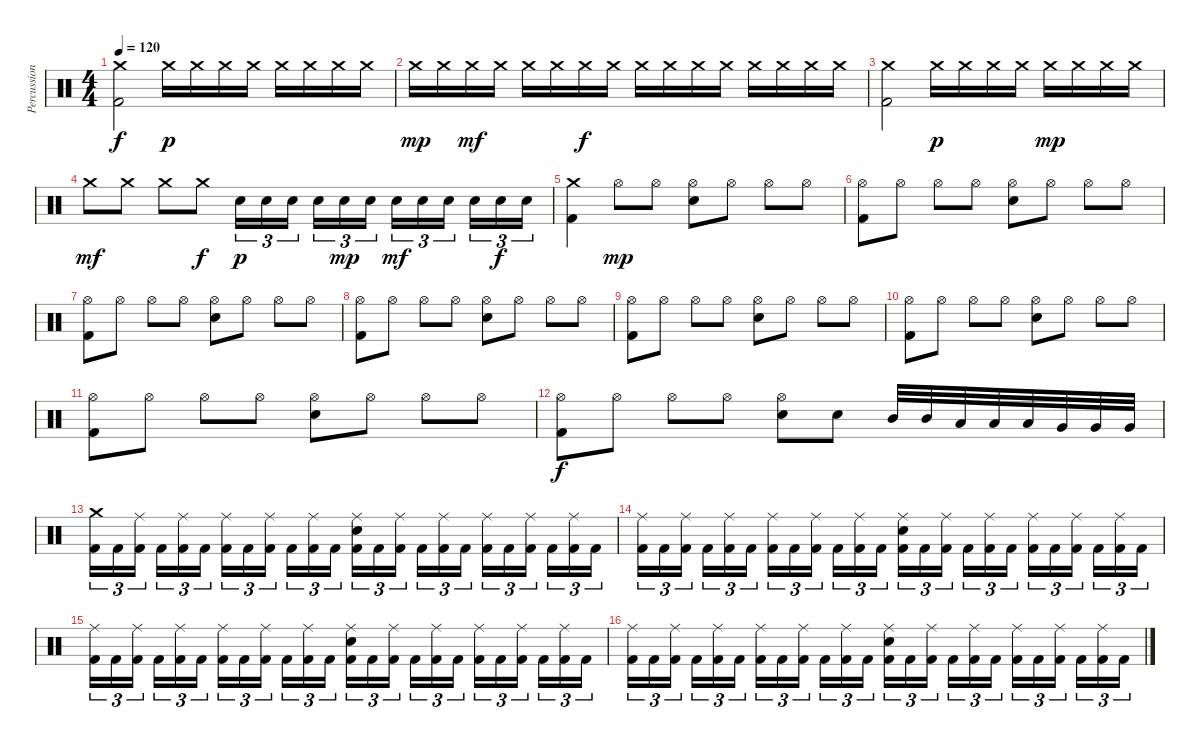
\track ("Percussion" "Percussion") {instrument percussion}
\staff {score}
\articulation defaults
\ts (4 4)
\tempo 120
\clef neutral
\ks c
("Kick (hit) 2" "Crash medium (hit)").2{dy f} "Crash medium (hit)".16{dy p} "Crash medium (hit)".16 "Crash medium (hit)".16 "Crash medium (hit)".16 "Crash medium (hit)".16 "Crash medium (hit)".16 "Crash medium (hit)".16 "Crash medium (hit)".16 |
"Crash medium (hit)".16{dy mp} "Crash medium (hit)".16 "Crash medium (hit)".16{dy mf} "Crash medium (hit)".16 "Crash medium (hit)".16 "Crash medium (hit)".16 "Crash medium (hit)".16{dy f} "Crash medium (hit)".16 "Crash medium (hit)".16 "Crash medium (hit)".16 "Crash medium (hit)".16 "Crash medium (hit)".16 "Crash medium (hit)".16 "Crash medium (hit)".16 "Crash medium (hit)".16 "Crash medium (hit)".16 |
("Kick (hit) 2" "Crash medium (hit)").2 "Crash medium (hit)".16{dy p} "Crash medium (hit)".16 "Crash medium (hit)".16 "Crash medium (hit)".16 "Crash medium (hit)".16{dy mp} "Crash medium (hit)".16 "Crash medium (hit)".16 "Crash medium (hit)".16 |
"Crash medium (hit)".8{dy mf} "Crash medium (hit)".8 "Crash medium (hit)".8 "Crash medium (hit)".8{dy f} "Electric Snare (hit)".16{tu (3 2) dy p} "Electric Snare (hit)".16{tu (3 2)} "Electric Snare (hit)".16{tu (3 2)} "Electric Snare (hit)".16{tu (3 2)} "Electric Snare (hit)".16{tu (3 2) dy mp} "Electric Snare (hit)".16{tu (3 2)} "Electric Snare (hit)".16{tu (3 2) dy mf} "Electric Snare (hit)".16{tu (3 2)} "Electric Snare (hit)".16{tu (3 2)} "Electric Snare (hit)".16{tu (3 2)} "Electric Snare (hit)".16{tu (3 2) dy f} "Electric Snare (hit)".16{tu (3 2)} |
("Kick (hit) 2" "Crash medium (hit)").4 "Hi-Hat (open)".8{dy mp} "Hi-Hat (open)".8 ("Electric Snare (hit)" "Hi-Hat (open)").8 "Hi-Hat (open)".8 "Hi-Hat (open)".8 "Hi-Hat (open)".8 |
("Kick (hit) 2" "Hi-Hat (open)").8 "Hi-Hat (open)".8 "Hi-Hat (open)".8 "Hi-Hat (open)".8 ("Electric Snare (hit)" "Hi-Hat (open)").8 "Hi-Hat (open)".8 "Hi-Hat (open)".8 "Hi-Hat (open)".8 |
("Kick (hit) 2" "Hi-Hat (open)").8 "Hi-Hat (open)".8 "Hi-Hat (open)".8 "Hi-Hat (open)".8 ("Electric Snare (hit)" "Hi-Hat (open)").8 "Hi-Hat (open)".8 "Hi-Hat (open)".8 "Hi-Hat (open)".8 |
("Kick (hit) 2" "Hi-Hat (open)").8 "Hi-Hat (open)".8 "Hi-Hat (open)".8 "Hi-Hat (open)".8 ("Electric Snare (hit)" "Hi-Hat (open)").8 "Hi-Hat (open)".8 "Hi-Hat (open)".8 "Hi-Hat (open)".8 |
("Kick (hit) 2" "Hi-Hat (open)").8 "Hi-Hat (open)".8 "Hi-Hat (open)".8 "Hi-Hat (open)".8 ("Electric Snare (hit)" "Hi-Hat (open)").8 "Hi-Hat (open)".8 "Hi-Hat (open)".8 "Hi-Hat (open)".8 |
("Kick (hit) 2" "Hi-Hat (open)").8 "Hi-Hat (open)".8 "Hi-Hat (open)".8 "Hi-Hat (open)".8 ("Electric Snare (hit)" "Hi-Hat (open)").8 "Hi-Hat (open)".8 "Hi-Hat (open)".8 "Hi-Hat (open)".8 |
("Kick (hit) 2" "Hi-Hat (open)").8 "Hi-Hat (open)".8 "Hi-Hat (open)".8 "Hi-Hat (open)".8 ("Electric Snare (hit)" "Hi-Hat (open)").8 "Hi-Hat (open)".8 "Hi-Hat (open)".8 "Hi-Hat (open)".8 |
("Kick (hit) 2" "Hi-Hat (open)").8{dy f} "Hi-Hat (open)".8 "Hi-Hat (open)".8 "Hi-Hat (open)".8 ("Electric Snare (hit)" "Hi-Hat (open)").8 "Electric Snare (hit)".8 "Mid Tom (hit)".32 "Mid Tom (hit)".32 "Low Tom (hit)".32 "Low Tom (hit)".32 "Low Tom (hit)".32 "Very Low Tom (hit)".32 "Very Low Tom (hit)".32 "Very Low Tom (hit)".32 |
("Crash medium (hit)" "Kick (hit) 2").16{tu (3 2)} "Kick (hit) 2".16{tu (3 2)} ("Ride (middle)" "Kick (hit) 2").16{tu (3 2)} "Kick (hit) 2".16{tu (3 2)} ("Ride (middle)" "Kick (hit) 2").16{tu (3 2)} "Kick (hit) 2".16{tu (3 2)} ("Ride (middle)" "Kick (hit) 2").16{tu (3 2)} "Kick (hit) 2".16{tu (3 2)} ("Ride (middle)" "Kick (hit) 2").16{tu (3 2)} "Kick (hit) 2".16{tu (3 2)} ("Ride (middle)" "Kick (hit) 2").16{tu (3 2)} "Kick (hit) 2".16{tu (3 2)} ("Electric Snare (hit)" "Ride (middle)" "Kick (hit) 2").16{tu (3 2)} "Kick (hit) 2".16{tu (3 2)} ("Ride (middle)" "Kick (hit) 2").16{tu (3 2)} "Kick (hit) 2".16{tu (3 2)} ("Ride (middle)" "Kick (hit) 2").16{tu (3 2)} "Kick (hit) 2".16{tu (3 2)} ("Ride (middle)" "Kick (hit) 2").16{tu (3 2)} "Kick (hit) 2".16{tu (3 2)} ("Ride (middle)" "Kick (hit) 2").16{tu (3 2)} "Kick (hit) 2".16{tu (3 2)} ("Ride (middle)" "Kick (hit) 2").16{tu (3 2)} "Kick (hit) 2".16{tu (3 2)} |
("Ride (middle)" "Kick (hit) 2").16{tu (3 2)} "Kick (hit) 2".16{tu (3 2)} ("Ride (middle)" "Kick (hit) 2").16{tu (3 2)} "Kick (hit) 2".16{tu (3 2)} ("Ride (middle)" "Kick (hit) 2").16{tu (3 2)} "Kick (hit) 2".16{tu (3 2)} ("Ride (middle)" "Kick (hit) 2").16{tu (3 2)} "Kick (hit) 2".16{tu (3 2)} ("Ride (middle)" "Kick (hit) 2").16{tu (3 2)} "Kick (hit) 2".16{tu (3 2)} ("Ride (middle)" "Kick (hit) 2").16{tu (3 2)} "Kick (hit) 2".16{tu (3 2)} ("Electric Snare (hit)" "Ride (middle)" "Kick (hit) 2").16{tu (3 2)} "Kick (hit) 2".16{tu (3 2)} ("Ride (middle)" "Kick (hit) 2").16{tu (3 2)} "Kick (hit) 2".16{tu (3 2)} ("Ride (middle)" "Kick (hit) 2").16{tu (3 2)} "Kick (hit) 2".16{tu (3 2)} ("Ride (middle)" "Kick (hit) 2").16{tu (3 2)} "Kick (hit) 2".16{tu (3 2)} ("Ride (middle)" "Kick (hit) 2").16{tu (3 2)} "Kick (hit) 2".16{tu (3 2)} ("Ride (middle)" "Kick (hit) 2").16{tu (3 2)} "Kick (hit) 2".16{tu (3 2)} |
("Ride (middle)" "Kick (hit) 2").16{tu (3 2)} "Kick (hit) 2".16{tu (3 2)} ("Ride (middle)" "Kick (hit) 2").16{tu (3 2)} "Kick (hit) 2".16{tu (3 2)} ("Ride (middle)" "Kick (hit) 2").16{tu (3 2)} "Kick (hit) 2".16{tu (3 2)} ("Ride (middle)" "Kick (hit) 2").16{tu (3 2)} "Kick (hit) 2".16{tu (3 2)} ("Ride (middle)" "Kick (hit) 2").16{tu (3 2)} "Kick (hit) 2".16{tu (3 2)} ("Ride (middle)" "Kick (hit) 2").16{tu (3 2)} "Kick (hit) 2".16{tu (3 2)} ("Electric Snare (hit)" "Ride (middle)" "Kick (hit) 2").16{tu (3 2)} "Kick (hit) 2".16{tu (3 2)} ("Ride (middle)" "Kick (hit) 2").16{tu (3 2)} "Kick (hit) 2".16{tu (3 2)} ("Ride (middle)" "Kick (hit) 2").16{tu (3 2)} "Kick (hit) 2".16{tu (3 2)} ("Ride (middle)" "Kick (hit) 2").16{tu (3 2)} "Kick (hit) 2".16{tu (3 2)} ("Ride (middle)" "Kick (hit) 2").16{tu (3 2)} "Kick (hit) 2".16{tu (3 2)} ("Ride (middle)" "Kick (hit) 2").16{tu (3 2)} "Kick (hit) 2".16{tu (3 2)} |
("Ride (middle)" "Kick (hit) 2").16{tu (3 2)} "Kick (hit) 2".16{tu (3 2)} ("Ride (middle)" "Kick (hit) 2").16{tu (3 2)} "Kick (hit) 2".16{tu (3 2)} ("Ride (middle)" "Kick (hit) 2").16{tu (3 2)} "Kick (hit) 2".16{tu (3 2)} ("Ride (middle)" "Kick (hit) 2").16{tu (3 2)} "Kick (hit) 2".16{tu (3 2)} ("Ride (middle)" "Kick (hit) 2").16{tu (3 2)} "Kick (hit) 2".16{tu (3 2)} ("Ride (middle)" "Kick (hit) 2").16{tu (3 2)} "Kick (hit) 2".16{tu (3 2)} ("Electric Snare (hit)" "Ride (middle)" "Kick (hit) 2").16{tu (3 2)} "Kick (hit) 2".16{tu (3 2)} ("Ride (middle)" "Kick (hit) 2").16{tu (3 2)} "Kick (hit) 2".16{tu (3 2)} ("Ride (middle)" "Kick (hit) 2").16{tu (3 2)} "Kick (hit) 2".16{tu (3 2)} ("Ride (middle)" "Kick (hit) 2").16{tu (3 2)} "Kick (hit) 2".16{tu (3 2)} ("Ride (middle)" "Kick (hit) 2").16{tu (3 2)} "Kick (hit) 2".16{tu (3 2)} ("Ride (middle)" "Kick (hit) 2").16{tu (3 2)} "Kick (hit) 2".16{tu (3 2)}
